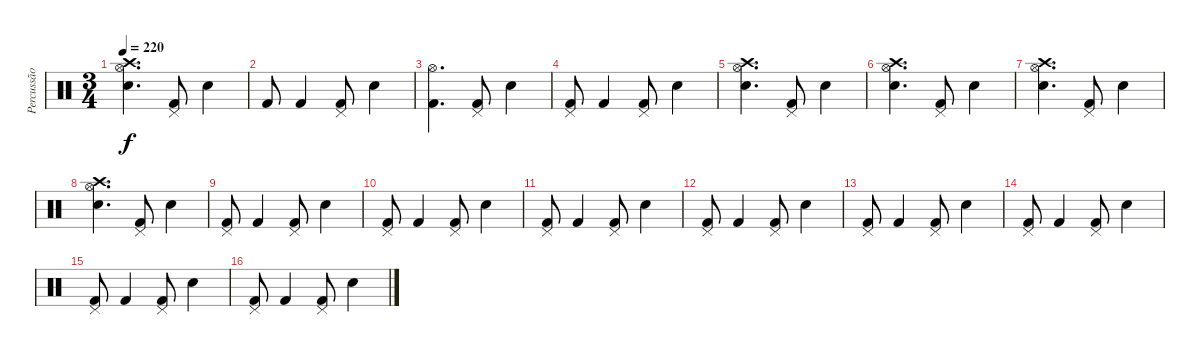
\track ("Percussão" "Percussão") {instrument percussion}
\staff {score}
\articulation defaults
\ts (3 4)
\tempo 220
\clef neutral
\ks c
("Hi-Hat (open)" "Snare (hit) 2" "Crash high (hit)").4{d dy f} ("Pedal Hi-Hat (hit)" "Kick (hit) 2").8 "Snare (hit) 2".4 |
"Kick (hit) 2".8 "Kick (hit) 2".4 ("Pedal Hi-Hat (hit)" "Kick (hit) 2").8 "Snare (hit) 2".4 |
("Hi-Hat (open)" "Kick (hit) 2").4{d} ("Pedal Hi-Hat (hit)" "Kick (hit) 2").8 "Snare (hit) 2".4 |
("Pedal Hi-Hat (hit)" "Kick (hit) 2").8 "Kick (hit) 2".4 ("Pedal Hi-Hat (hit)" "Kick (hit) 2").8 "Snare (hit) 2".4 |
("Hi-Hat (open)" "Snare (hit) 2" "Crash high (hit)").4{d} ("Pedal Hi-Hat (hit)" "Kick (hit) 2").8 "Snare (hit) 2".4 |
("Hi-Hat (open)" "Snare (hit) 2" "Crash high (hit)").4{d} ("Pedal Hi-Hat (hit)" "Kick (hit) 2").8 "Snare (hit) 2".4 |
("Hi-Hat (open)" "Snare (hit) 2" "Crash high (hit)").4{d} ("Pedal Hi-Hat (hit)" "Kick (hit) 2").8 "Snare (hit) 2".4 |
("Hi-Hat (open)" "Snare (hit) 2" "Crash high (hit)").4{d} ("Pedal Hi-Hat (hit)" "Kick (hit) 2").8 "Snare (hit) 2".4 |
("Pedal Hi-Hat (hit)" "Kick (hit) 2").8 "Kick (hit) 2".4 ("Pedal Hi-Hat (hit)" "Kick (hit) 2").8 "Snare (hit) 2".4 |
("Pedal Hi-Hat (hit)" "Kick (hit) 2").8 "Kick (hit) 2".4 ("Pedal Hi-Hat (hit)" "Kick (hit) 2").8 "Snare (hit) 2".4 |
("Pedal Hi-Hat (hit)" "Kick (hit) 2").8 "Kick (hit) 2".4 ("Pedal Hi-Hat (hit)" "Kick (hit) 2").8 "Snare (hit) 2".4 |
("Pedal Hi-Hat (hit)" "Kick (hit) 2").8 "Kick (hit) 2".4 ("Pedal Hi-Hat (hit)" "Kick (hit) 2").8 "Snare (hit) 2".4 |
("Pedal Hi-Hat (hit)" "Kick (hit) 2").8 "Kick (hit) 2".4 ("Pedal Hi-Hat (hit)" "Kick (hit) 2").8 "Snare (hit) 2".4 |
("Pedal Hi-Hat (hit)" "Kick (hit) 2").8 "Kick (hit) 2".4 ("Pedal Hi-Hat (hit)" "Kick (hit) 2").8 "Snare (hit) 2".4 |
("Pedal Hi-Hat (hit)" "Kick (hit) 2").8 "Kick (hit) 2".4 ("Pedal Hi-Hat (hit)" "Kick (hit) 2").8 "Snare (hit) 2".4 |
("Pedal Hi-Hat (hit)" "Kick (hit) 2").8 "Kick (hit) 2".4 ("Pedal Hi-Hat (hit)" "Kick (hit) 2").8 "Snare (hit) 2".4
